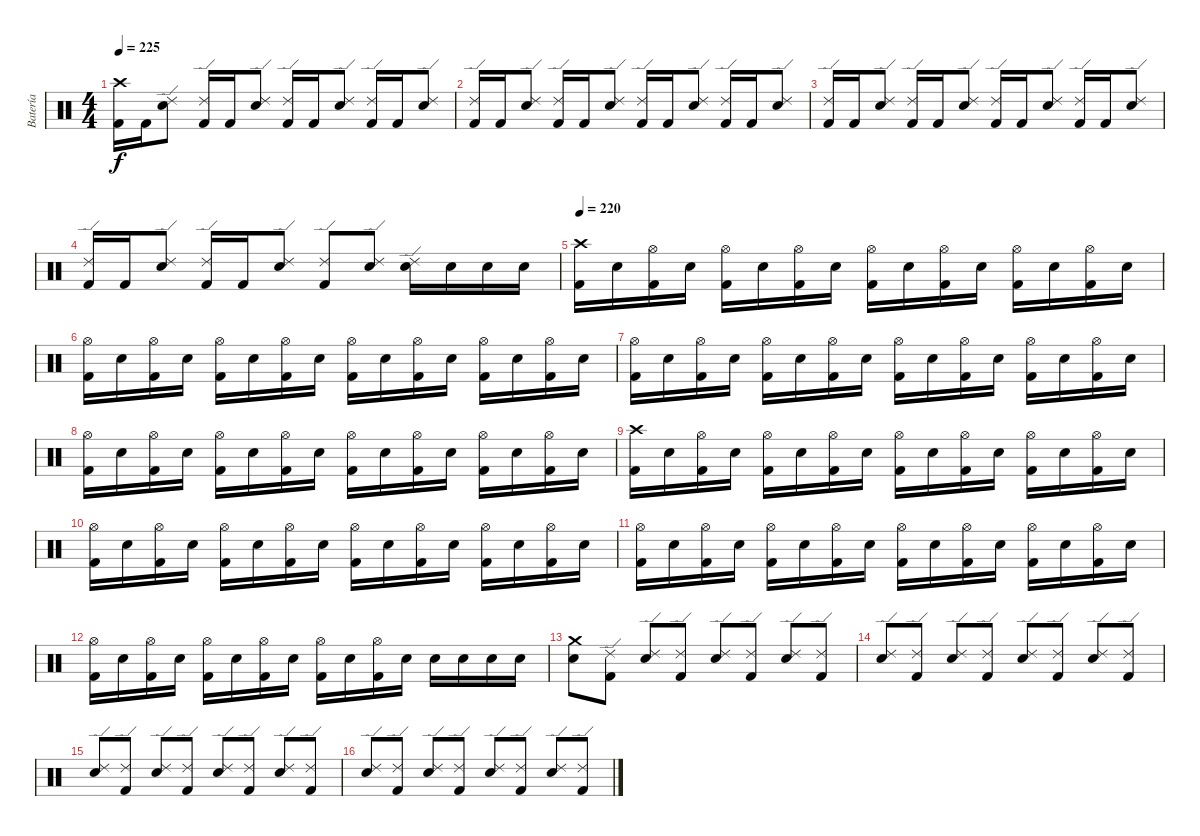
\track ("Batería" "Batería") {instrument percussion}
\staff {score}
\articulation defaults
\ts (4 4)
\tempo 225
\clef neutral
\ks c
("Crash high (hit)" "Kick (hit) 2").16{dy f} "Kick (hit) 2".16 ("Ride (edge) 2" "Snare (hit) 2").8 ("Ride (edge) 2" "Kick (hit) 2").16 "Kick (hit) 2".16 ("Ride (edge) 2" "Snare (hit) 2").8 ("Ride (edge) 2" "Kick (hit) 2").16 "Kick (hit) 2".16 ("Ride (edge) 2" "Snare (hit) 2").8 ("Ride (edge) 2" "Kick (hit) 2").16 "Kick (hit) 2".16 ("Ride (edge) 2" "Snare (hit) 2").8 |
("Ride (edge) 2" "Kick (hit) 2").16 "Kick (hit) 2".16 ("Ride (edge) 2" "Snare (hit) 2").8 ("Ride (edge) 2" "Kick (hit) 2").16 "Kick (hit) 2".16 ("Ride (edge) 2" "Snare (hit) 2").8 ("Ride (edge) 2" "Kick (hit) 2").16 "Kick (hit) 2".16 ("Ride (edge) 2" "Snare (hit) 2").8 ("Ride (edge) 2" "Kick (hit) 2").16 "Kick (hit) 2".16 ("Ride (edge) 2" "Snare (hit) 2").8 |
("Ride (edge) 2" "Kick (hit) 2").16 "Kick (hit) 2".16 ("Ride (edge) 2" "Snare (hit) 2").8 ("Ride (edge) 2" "Kick (hit) 2").16 "Kick (hit) 2".16 ("Ride (edge) 2" "Snare (hit) 2").8 ("Ride (edge) 2" "Kick (hit) 2").16 "Kick (hit) 2".16 ("Ride (edge) 2" "Snare (hit) 2").8 ("Ride (edge) 2" "Kick (hit) 2").16 "Kick (hit) 2".16 ("Ride (edge) 2" "Snare (hit) 2").8 |
("Ride (edge) 2" "Kick (hit) 2").16 "Kick (hit) 2".16 ("Ride (edge) 2" "Snare (hit) 2").8 ("Ride (edge) 2" "Kick (hit) 2").16 "Kick (hit) 2".16 ("Ride (edge) 2" "Snare (hit) 2").8 ("Ride (edge) 2" "Kick (hit) 2").8 ("Ride (edge) 2" "Snare (hit) 2").8 ("Ride (edge) 2" "Snare (hit) 2").16 "Snare (hit) 2".16 "Snare (hit) 2".16 "Snare (hit) 2".16 |
\tempo 220
("Crash high (hit)" "Kick (hit) 2").16 "Snare (hit) 2".16 ("Hi-Hat (open)" "Kick (hit) 2").16 "Snare (hit) 2".16 ("Hi-Hat (open)" "Kick (hit) 2").16 "Snare (hit) 2".16 ("Hi-Hat (open)" "Kick (hit) 2").16 "Snare (hit) 2".16 ("Hi-Hat (open)" "Kick (hit) 2").16 "Snare (hit) 2".16 ("Hi-Hat (open)" "Kick (hit) 2").16 "Snare (hit) 2".16 ("Hi-Hat (open)" "Kick (hit) 2").16 "Snare (hit) 2".16 ("Hi-Hat (open)" "Kick (hit) 2").16 "Snare (hit) 2".16 |
("Hi-Hat (open)" "Kick (hit) 2").16 "Snare (hit) 2".16 ("Hi-Hat (open)" "Kick (hit) 2").16 "Snare (hit) 2".16 ("Hi-Hat (open)" "Kick (hit) 2").16 "Snare (hit) 2".16 ("Hi-Hat (open)" "Kick (hit) 2").16 "Snare (hit) 2".16 ("Hi-Hat (open)" "Kick (hit) 2").16 "Snare (hit) 2".16 ("Hi-Hat (open)" "Kick (hit) 2").16 "Snare (hit) 2".16 ("Hi-Hat (open)" "Kick (hit) 2").16 "Snare (hit) 2".16 ("Hi-Hat (open)" "Kick (hit) 2").16 "Snare (hit) 2".16 |
("Hi-Hat (open)" "Kick (hit) 2").16 "Snare (hit) 2".16 ("Hi-Hat (open)" "Kick (hit) 2").16 "Snare (hit) 2".16 ("Hi-Hat (open)" "Kick (hit) 2").16 "Snare (hit) 2".16 ("Hi-Hat (open)" "Kick (hit) 2").16 "Snare (hit) 2".16 ("Hi-Hat (open)" "Kick (hit) 2").16 "Snare (hit) 2".16 ("Hi-Hat (open)" "Kick (hit) 2").16 "Snare (hit) 2".16 ("Hi-Hat (open)" "Kick (hit) 2").16 "Snare (hit) 2".16 ("Hi-Hat (open)" "Kick (hit) 2").16 "Snare (hit) 2".16 |
("Hi-Hat (open)" "Kick (hit) 2").16 "Snare (hit) 2".16 ("Hi-Hat (open)" "Kick (hit) 2").16 "Snare (hit) 2".16 ("Hi-Hat (open)" "Kick (hit) 2").16 "Snare (hit) 2".16 ("Hi-Hat (open)" "Kick (hit) 2").16 "Snare (hit) 2".16 ("Hi-Hat (open)" "Kick (hit) 2").16 "Snare (hit) 2".16 ("Hi-Hat (open)" "Kick (hit) 2").16 "Snare (hit) 2".16 ("Hi-Hat (open)" "Kick (hit) 2").16 "Snare (hit) 2".16 ("Hi-Hat (open)" "Kick (hit) 2").16 "Snare (hit) 2".16 |
("Crash high (hit)" "Kick (hit) 2").16 "Snare (hit) 2".16 ("Hi-Hat (open)" "Kick (hit) 2").16 "Snare (hit) 2".16 ("Hi-Hat (open)" "Kick (hit) 2").16 "Snare (hit) 2".16 ("Hi-Hat (open)" "Kick (hit) 2").16 "Snare (hit) 2".16 ("Hi-Hat (open)" "Kick (hit) 2").16 "Snare (hit) 2".16 ("Hi-Hat (open)" "Kick (hit) 2").16 "Snare (hit) 2".16 ("Hi-Hat (open)" "Kick (hit) 2").16 "Snare (hit) 2".16 ("Hi-Hat (open)" "Kick (hit) 2").16 "Snare (hit) 2".16 |
("Hi-Hat (open)" "Kick (hit) 2").16 "Snare (hit) 2".16 ("Hi-Hat (open)" "Kick (hit) 2").16 "Snare (hit) 2".16 ("Hi-Hat (open)" "Kick (hit) 2").16 "Snare (hit) 2".16 ("Hi-Hat (open)" "Kick (hit) 2").16 "Snare (hit) 2".16 ("Hi-Hat (open)" "Kick (hit) 2").16 "Snare (hit) 2".16 ("Hi-Hat (open)" "Kick (hit) 2").16 "Snare (hit) 2".16 ("Hi-Hat (open)" "Kick (hit) 2").16 "Snare (hit) 2".16 ("Hi-Hat (open)" "Kick (hit) 2").16 "Snare (hit) 2".16 |
("Hi-Hat (open)" "Kick (hit) 2").16 "Snare (hit) 2".16 ("Hi-Hat (open)" "Kick (hit) 2").16 "Snare (hit) 2".16 ("Hi-Hat (open)" "Kick (hit) 2").16 "Snare (hit) 2".16 ("Hi-Hat (open)" "Kick (hit) 2").16 "Snare (hit) 2".16 ("Hi-Hat (open)" "Kick (hit) 2").16 "Snare (hit) 2".16 ("Hi-Hat (open)" "Kick (hit) 2").16 "Snare (hit) 2".16 ("Hi-Hat (open)" "Kick (hit) 2").16 "Snare (hit) 2".16 ("Hi-Hat (open)" "Kick (hit) 2").16 "Snare (hit) 2".16 |
("Hi-Hat (open)" "Kick (hit) 2").16 "Snare (hit) 2".16 ("Hi-Hat (open)" "Kick (hit) 2").16 "Snare (hit) 2".16 ("Hi-Hat (open)" "Kick (hit) 2").16 "Snare (hit) 2".16 ("Hi-Hat (open)" "Kick (hit) 2").16 "Snare (hit) 2".16 ("Hi-Hat (open)" "Kick (hit) 2").16 "Snare (hit) 2".16 ("Hi-Hat (open)" "Kick (hit) 2").16 "Snare (hit) 2".16 "Snare (hit) 2".16 "Snare (hit) 2".16 "Snare (hit) 2".16 "Snare (hit) 2".16 |
("Crash medium (hit)" "Snare (hit) 2").8 ("Ride (edge) 2" "Kick (hit) 2").8 ("Ride (edge) 2" "Snare (hit) 2").8 ("Ride (edge) 2" "Kick (hit) 2").8 ("Ride (edge) 2" "Snare (hit) 2").8 ("Ride (edge) 2" "Kick (hit) 2").8 ("Ride (edge) 2" "Snare (hit) 2").8 ("Ride (edge) 2" "Kick (hit) 2").8 |
("Ride (edge) 2" "Snare (hit) 2").8 ("Ride (edge) 2" "Kick (hit) 2").8 ("Ride (edge) 2" "Snare (hit) 2").8 ("Ride (edge) 2" "Kick (hit) 2").8 ("Ride (edge) 2" "Snare (hit) 2").8 ("Ride (edge) 2" "Kick (hit) 2").8 ("Ride (edge) 2" "Snare (hit) 2").8 ("Ride (edge) 2" "Kick (hit) 2").8 |
("Ride (edge) 2" "Snare (hit) 2").8 ("Ride (edge) 2" "Kick (hit) 2").8 ("Ride (edge) 2" "Snare (hit) 2").8 ("Ride (edge) 2" "Kick (hit) 2").8 ("Ride (edge) 2" "Snare (hit) 2").8 ("Ride (edge) 2" "Kick (hit) 2").8 ("Ride (edge) 2" "Snare (hit) 2").8 ("Ride (edge) 2" "Kick (hit) 2").8 |
("Ride (edge) 2" "Snare (hit) 2").8 ("Ride (edge) 2" "Kick (hit) 2").8 ("Ride (edge) 2" "Snare (hit) 2").8 ("Ride (edge) 2" "Kick (hit) 2").8 ("Ride (edge) 2" "Snare (hit) 2").8 ("Ride (edge) 2" "Kick (hit) 2").8 ("Ride (edge) 2" "Snare (hit) 2").8 ("Ride (edge) 2" "Kick (hit) 2").8
